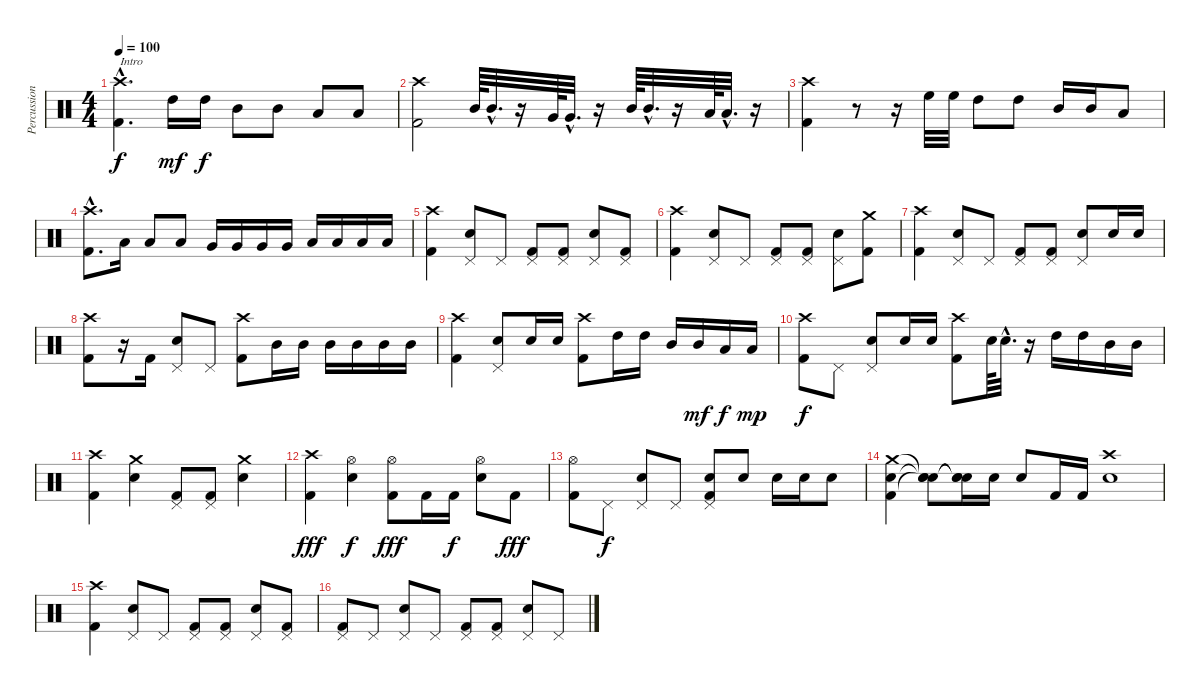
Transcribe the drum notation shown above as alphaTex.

\track ("Percussion" "Percussion") {instrument percussion}
\staff {score}
\articulation defaults
\ts (4 4)
\tempo 100
\clef neutral
\ks c
("Crash high (hit)"{hac} "Kick (hit) 2"{hac}).4{d txt "Intro" dy f} "High Tom (hit)".16{dy mf} "High Tom (hit)".16{dy f} "Mid Tom (hit)".8 "Mid Tom (hit)".8 "Low Tom (hit)".8 "Low Tom (hit)".8 |
("Crash high (hit)" "Kick (hit) 2").2 "Mid Tom (hit)".64 "Mid Tom (hit)"{hac}.32{d} r.16 "Very Low Tom (hit)".64 "Very Low Tom (hit)"{hac}.32{d} r.16 "Mid Tom (hit)".64 "Mid Tom (hit)"{hac}.32{d} r.16 "Low Tom (hit)".64 "Low Tom (hit)"{hac}.32{d} r.16 |
("Crash high (hit)" "Kick (hit) 2").4 r.8 r.16 "High Floor Tom (hit)".32 "High Floor Tom (hit)".32 "High Tom (hit)".8 "High Tom (hit)".8 "Mid Tom (hit)".16 "Mid Tom (hit)".16 "Low Tom (hit)".8 |
("Crash high (hit)"{hac} "Kick (hit) 2"{hac}).8{d} "Low Tom (hit)".16 "Low Tom (hit)".8 "Low Tom (hit)".8 "Very Low Tom (hit)".16 "Very Low Tom (hit)".16 "Very Low Tom (hit)".16 "Very Low Tom (hit)".16 "Low Floor Tom (hit)".16 "Low Floor Tom (hit)".16 "Low Floor Tom (hit)".16 "Low Floor Tom (hit)".16 |
("Crash high (hit)" "Kick (hit) 2").4 ("Pedal Hi-Hat (hit)" "Snare (hit) 2").8 "Pedal Hi-Hat (hit)".8 ("Pedal Hi-Hat (hit)" "Kick (hit) 2").8 ("Pedal Hi-Hat (hit)" "Kick (hit) 2").8 ("Pedal Hi-Hat (hit)" "Snare (hit) 2").8 ("Pedal Hi-Hat (hit)" "Kick (hit) 2").8 |
("Crash high (hit)" "Kick (hit) 2").4 ("Pedal Hi-Hat (hit)" "Snare (hit) 2").8 "Pedal Hi-Hat (hit)".8 ("Pedal Hi-Hat (hit)" "Kick (hit) 2").8 ("Pedal Hi-Hat (hit)" "Kick (hit) 2").8 ("Pedal Hi-Hat (hit)" "Snare (hit) 2").8 ("Crash medium (hit)" "Kick (hit) 2").8 |
("Crash high (hit)" "Kick (hit) 2").4 ("Pedal Hi-Hat (hit)" "Snare (hit) 2").8 "Pedal Hi-Hat (hit)".8 ("Pedal Hi-Hat (hit)" "Kick (hit) 2").8 ("Pedal Hi-Hat (hit)" "Kick (hit) 2").8 ("Pedal Hi-Hat (hit)" "Snare (hit) 2").8 "Snare (hit) 2".16 "Snare (hit) 2".16 |
("Crash high (hit)" "Kick (hit) 2").8 r.16 "Kick (hit) 2".16 ("Pedal Hi-Hat (hit)" "Snare (hit) 2").8 "Pedal Hi-Hat (hit)".8 ("Crash high (hit)" "Kick (hit) 2").8 "Mid Tom (hit)".16 "Mid Tom (hit)".16 "Mid Tom (hit)".16 "Mid Tom (hit)".16 "Mid Tom (hit)".16 "Mid Tom (hit)".16 |
("Crash high (hit)" "Kick (hit) 2").4 ("Pedal Hi-Hat (hit)" "Snare (hit) 2").8 "Snare (hit) 2".16 "Snare (hit) 2".16 ("Crash high (hit)" "Kick (hit) 2").8 "High Tom (hit)".16 "High Tom (hit)".16 "Mid Tom (hit)".16 "Mid Tom (hit)".16{dy mf} "Low Tom (hit)".16{dy f} "Low Tom (hit)".16{dy mp} |
("Crash high (hit)" "Kick (hit) 2").8{dy f} "Pedal Hi-Hat (hit)".8 ("Pedal Hi-Hat (hit)" "Snare (hit) 2").8 "Snare (hit) 2".16 "Snare (hit) 2".16 ("Crash high (hit)" "Kick (hit) 2").8 "Snare (hit) 2".64 "Snare (hit) 2"{hac}.32{d} r.16 "High Tom (hit)".16 "High Tom (hit)".16 "Mid Tom (hit)".16 "Mid Tom (hit)".16 |
("Crash high (hit)" "Kick (hit) 2").4 ("Crash medium (hit)" "Snare (hit) 2").4 ("Pedal Hi-Hat (hit)" "Kick (hit) 2").8 ("Pedal Hi-Hat (hit)" "Kick (hit) 2").8 ("Crash medium (hit)" "Snare (hit) 2").4 |
("Crash high (hit)" "Kick (hit) 2").4{dy fff} ("Hi-Hat (open)" "Snare (hit) 2").4{dy f} ("Hi-Hat (open)" "Kick (hit) 2").8{dy fff} "Kick (hit) 2".16 "Kick (hit) 2".16{dy f} ("Hi-Hat (open)" "Snare (hit) 2").8 "Kick (hit) 2".8{dy fff} |
("Hi-Hat (open)" "Kick (hit) 2").8 "Pedal Hi-Hat (hit)".8{dy f} ("Pedal Hi-Hat (hit)" "Snare (hit) 2").8 "Pedal Hi-Hat (hit)".8 ("Pedal Hi-Hat (hit)" "Snare (hit) 2" "Kick (hit) 2").8 "Snare (hit) 2".8 "Snare (hit) 2".16 "Snare (hit) 2".16 "Snare (hit) 2".8 |
("Crash medium (hit)" "Snare (hit) 2" "Kick (hit) 2").4 ("Snare (hit)"{t} "Snare (hit)"{t} "Snare (hit)"{t}).8 ("Snare (hit)"{t} "Snare (hit)"{t} "Snare (hit)"{t}).16 "Snare (hit) 2".16 "Snare (hit) 2".8 "Kick (hit) 2".16 "Kick (hit) 2".16 ("Snare (hit) 2" "Crash high (hit)").1 |
("Crash high (hit)" "Kick (hit) 2").4 ("Pedal Hi-Hat (hit)" "Snare (hit) 2").8 "Pedal Hi-Hat (hit)".8 ("Pedal Hi-Hat (hit)" "Kick (hit) 2").8 ("Pedal Hi-Hat (hit)" "Kick (hit) 2").8 ("Pedal Hi-Hat (hit)" "Snare (hit) 2").8 ("Pedal Hi-Hat (hit)" "Kick (hit) 2").8 |
("Pedal Hi-Hat (hit)" "Kick (hit) 2").8 "Pedal Hi-Hat (hit)".8 ("Pedal Hi-Hat (hit)" "Snare (hit) 2").8 "Pedal Hi-Hat (hit)".8 ("Pedal Hi-Hat (hit)" "Kick (hit) 2").8 ("Pedal Hi-Hat (hit)" "Kick (hit) 2").8 ("Pedal Hi-Hat (hit)" "Snare (hit) 2").8 "Pedal Hi-Hat (hit)".8
